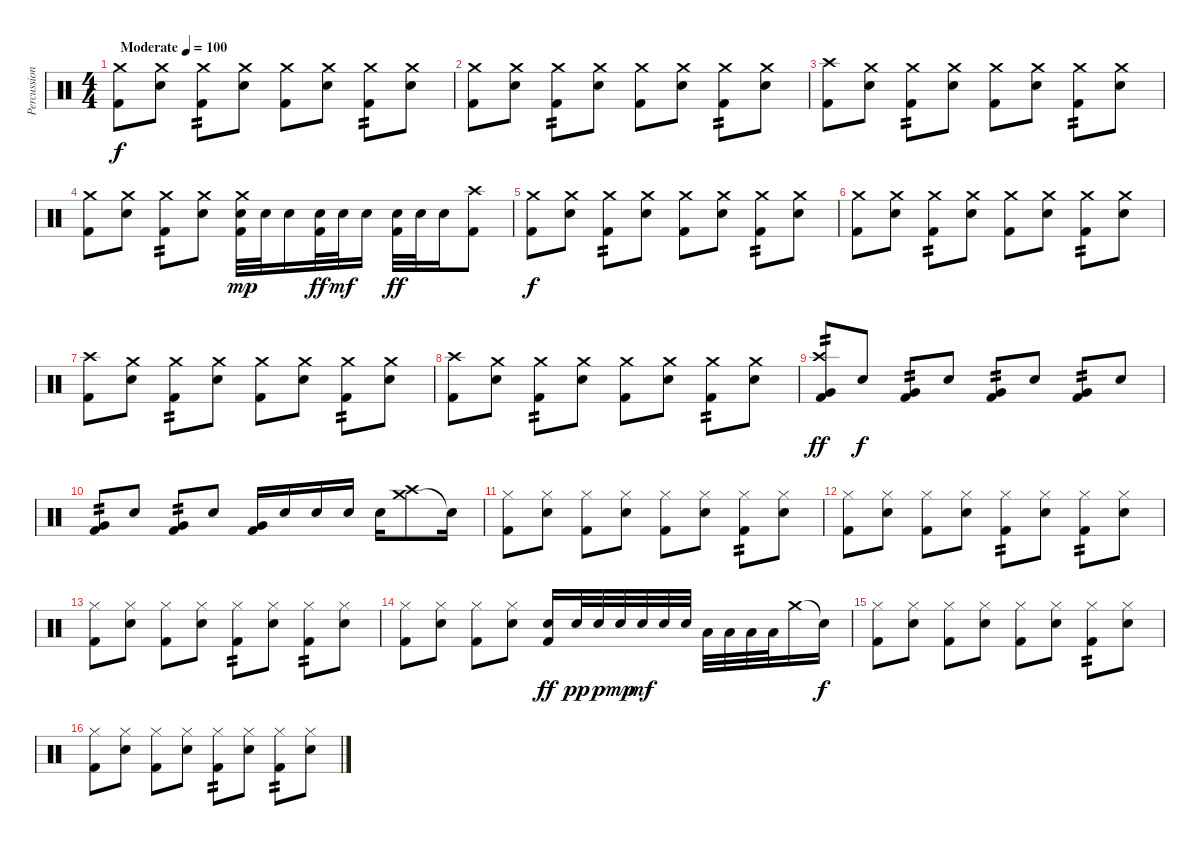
\track ("Percussion" "Percussion") {instrument percussion}
\staff {score}
\articulation defaults
\ts (4 4)
\tempo (100 "Moderate")
\clef neutral
\ks c
("Crash medium (hit)" "Kick (hit) 2").8{dy f} ("Crash medium (hit)" "Electric Snare (hit)").8 ("Crash medium (hit)" "Kick (hit) 2").8{tp 2} ("Crash medium (hit)" "Electric Snare (hit)").8 ("Crash medium (hit)" "Kick (hit) 2").8 ("Crash medium (hit)" "Electric Snare (hit)").8 ("Crash medium (hit)" "Kick (hit) 2").8{tp 2} ("Crash medium (hit)" "Electric Snare (hit)").8 |
("Crash medium (hit)" "Kick (hit) 2").8 ("Crash medium (hit)" "Electric Snare (hit)").8 ("Crash medium (hit)" "Kick (hit) 2").8{tp 2} ("Crash medium (hit)" "Electric Snare (hit)").8 ("Crash medium (hit)" "Kick (hit) 2").8 ("Crash medium (hit)" "Electric Snare (hit)").8 ("Crash medium (hit)" "Kick (hit) 2").8{tp 2} ("Crash medium (hit)" "Electric Snare (hit)").8 |
("Crash high (hit)" "Kick (hit) 2").8 ("Crash medium (hit)" "Electric Snare (hit)").8 ("Crash medium (hit)" "Kick (hit) 2").8{tp 2} ("Crash medium (hit)" "Electric Snare (hit)").8 ("Crash medium (hit)" "Kick (hit) 2").8 ("Crash medium (hit)" "Electric Snare (hit)").8 ("Crash medium (hit)" "Kick (hit) 2").8{tp 2} ("Crash medium (hit)" "Electric Snare (hit)").8 |
("Crash medium (hit)" "Kick (hit) 2").8 ("Crash medium (hit)" "Electric Snare (hit)").8 ("Crash medium (hit)" "Kick (hit) 2").8{tp 2} ("Crash medium (hit)" "Electric Snare (hit)").8 ("Crash medium (hit)" "Electric Snare (hit)" "Kick (hit) 2").32{dy mp} "Electric Snare (hit)".32 "Electric Snare (hit)".16 ("Electric Snare (hit)" "Kick (hit) 2").32{dy ff} "Electric Snare (hit)".32{dy mf} "Electric Snare (hit)".16 ("Electric Snare (hit)" "Kick (hit) 2").32{dy ff} "Electric Snare (hit)".32 "Electric Snare (hit)".16 ("Crash high (hit)" "Kick (hit) 2").8 |
("Crash medium (hit)" "Kick (hit) 2").8{dy f} ("Crash medium (hit)" "Electric Snare (hit)").8 ("Crash medium (hit)" "Kick (hit) 2").8{tp 2} ("Crash medium (hit)" "Electric Snare (hit)").8 ("Crash medium (hit)" "Kick (hit) 2").8 ("Crash medium (hit)" "Electric Snare (hit)").8 ("Crash medium (hit)" "Kick (hit) 2").8{tp 2} ("Crash medium (hit)" "Electric Snare (hit)").8 |
("Crash medium (hit)" "Kick (hit) 2").8 ("Crash medium (hit)" "Electric Snare (hit)").8 ("Crash medium (hit)" "Kick (hit) 2").8{tp 2} ("Crash medium (hit)" "Electric Snare (hit)").8 ("Crash medium (hit)" "Kick (hit) 2").8 ("Crash medium (hit)" "Electric Snare (hit)").8 ("Crash medium (hit)" "Kick (hit) 2").8{tp 2} ("Crash medium (hit)" "Electric Snare (hit)").8 |
("Crash high (hit)" "Kick (hit) 2").8 ("Crash medium (hit)" "Electric Snare (hit)").8 ("Crash medium (hit)" "Kick (hit) 2").8{tp 2} ("Crash medium (hit)" "Electric Snare (hit)").8 ("Crash medium (hit)" "Kick (hit) 2").8 ("Crash medium (hit)" "Electric Snare (hit)").8 ("Crash medium (hit)" "Kick (hit) 2").8{tp 2} ("Crash medium (hit)" "Electric Snare (hit)").8 |
("Crash high (hit)" "Kick (hit) 2").8 ("Crash medium (hit)" "Electric Snare (hit)").8 ("Crash medium (hit)" "Kick (hit) 2").8{tp 2} ("Crash medium (hit)" "Electric Snare (hit)").8 ("Crash medium (hit)" "Kick (hit) 2").8 ("Crash medium (hit)" "Electric Snare (hit)").8 ("Crash medium (hit)" "Kick (hit) 2").8{tp 2} ("Crash medium (hit)" "Electric Snare (hit)").8 |
("Crash high (hit)" "Very Low Tom (hit)" "Kick (hit) 2").8{tp 2 dy ff} "Electric Snare (hit)".8{dy f} ("Very Low Tom (hit)" "Kick (hit) 2").8{tp 2} "Electric Snare (hit)".8 ("Very Low Tom (hit)" "Kick (hit) 2").8{tp 2} "Electric Snare (hit)".8 ("Very Low Tom (hit)" "Kick (hit) 2").8{tp 2} "Electric Snare (hit)".8 |
("Very Low Tom (hit)" "Kick (hit) 2").8{tp 2} "Electric Snare (hit)".8 ("Very Low Tom (hit)" "Kick (hit) 2").8{tp 2} "Electric Snare (hit)".8 ("Very Low Tom (hit)" "Kick (hit) 2").16 "Electric Snare (hit)".16 "Electric Snare (hit)".16 "Electric Snare (hit)".16 "Electric Snare (hit)".16 ("Crash medium (hit)" "Crash high (hit)").8 "Snare (hit)"{t}.16 |
("Hi-Hat (closed)" "Kick (hit) 2").8 ("Hi-Hat (closed)" "Electric Snare (hit)").8 ("Hi-Hat (closed)" "Kick (hit) 2").8 ("Hi-Hat (closed)" "Electric Snare (hit)").8 ("Hi-Hat (closed)" "Kick (hit) 2").8 ("Hi-Hat (closed)" "Electric Snare (hit)").8 ("Hi-Hat (closed)" "Kick (hit) 2").8{tp 2} ("Hi-Hat (closed)" "Electric Snare (hit)").8 |
("Hi-Hat (closed)" "Kick (hit) 2").8 ("Hi-Hat (closed)" "Electric Snare (hit)").8 ("Hi-Hat (closed)" "Kick (hit) 2").8 ("Hi-Hat (closed)" "Electric Snare (hit)").8 ("Hi-Hat (closed)" "Kick (hit) 2").8{tp 2} ("Hi-Hat (closed)" "Electric Snare (hit)").8 ("Hi-Hat (closed)" "Kick (hit) 2").8{tp 2} ("Hi-Hat (closed)" "Electric Snare (hit)").8 |
("Hi-Hat (closed)" "Kick (hit) 2").8 ("Hi-Hat (closed)" "Electric Snare (hit)").8 ("Hi-Hat (closed)" "Kick (hit) 2").8 ("Hi-Hat (closed)" "Electric Snare (hit)").8 ("Hi-Hat (closed)" "Kick (hit) 2").8{tp 2} ("Hi-Hat (closed)" "Electric Snare (hit)").8 ("Hi-Hat (closed)" "Kick (hit) 2").8{tp 2} ("Hi-Hat (closed)" "Electric Snare (hit)").8 |
("Hi-Hat (closed)" "Kick (hit) 2").8 ("Hi-Hat (closed)" "Electric Snare (hit)").8 ("Hi-Hat (closed)" "Kick (hit) 2").8 ("Hi-Hat (closed)" "Electric Snare (hit)").8 ("Electric Snare (hit)" "Kick (hit) 2").16{dy ff} "Electric Snare (hit)".32{dy pp} "Electric Snare (hit)".32{dy p} "Electric Snare (hit)".32{dy mp} "Electric Snare (hit)".32{dy mf} "Electric Snare (hit)".32 "Electric Snare (hit)".32 "Low Tom (hit)".32 "Low Tom (hit)".32 "Low Tom (hit)".32 "Low Tom (hit)".32 "Crash medium (hit)".16 "Snare (hit)"{t}.16{dy f} |
("Hi-Hat (closed)" "Kick (hit) 2").8 ("Hi-Hat (closed)" "Electric Snare (hit)").8 ("Hi-Hat (closed)" "Kick (hit) 2").8 ("Hi-Hat (closed)" "Electric Snare (hit)").8 ("Hi-Hat (closed)" "Kick (hit) 2").8 ("Hi-Hat (closed)" "Electric Snare (hit)").8 ("Hi-Hat (closed)" "Kick (hit) 2").8{tp 2} ("Hi-Hat (closed)" "Electric Snare (hit)").8 |
("Hi-Hat (closed)" "Kick (hit) 2").8 ("Hi-Hat (closed)" "Electric Snare (hit)").8 ("Hi-Hat (closed)" "Kick (hit) 2").8 ("Hi-Hat (closed)" "Electric Snare (hit)").8 ("Hi-Hat (closed)" "Kick (hit) 2").8{tp 2} ("Hi-Hat (closed)" "Electric Snare (hit)").8 ("Hi-Hat (closed)" "Kick (hit) 2").8{tp 2} ("Hi-Hat (closed)" "Electric Snare (hit)").8
